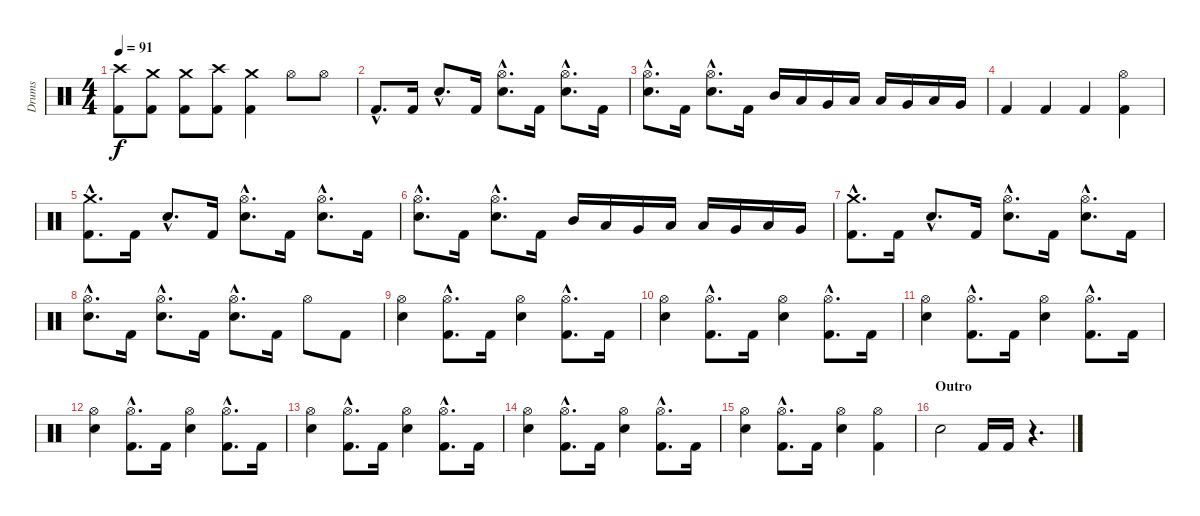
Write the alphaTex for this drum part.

\track ("Drums" "Drums") {instrument percussion}
\staff {score}
\articulation defaults
\ts (4 4)
\tempo 91
\clef neutral
\ks c
("Crash high (hit)" "Kick (hit) 2").8{dy f} ("Crash medium (hit)" "Kick (hit) 2").8 ("Crash medium (hit)" "Kick (hit) 2").8 ("Crash high (hit)" "Kick (hit) 2").8 ("Crash medium (hit)" "Kick (hit) 2").4 "Hi-Hat (open)".8 "Hi-Hat (open)".8 |
"Kick (hit) 2"{hac}.8{d} "Kick (hit) 2".16 "Snare (hit) 2"{hac}.8{d} "Kick (hit) 2".16 ("Hi-Hat (open)"{hac} "Snare (hit) 2"{hac}).8{d} "Kick (hit) 2".16 ("Hi-Hat (open)"{hac} "Snare (hit) 2"{hac}).8{d} "Kick (hit) 2".16 |
("Hi-Hat (open)"{hac} "Snare (hit) 2"{hac}).8{d} "Kick (hit) 2".16 ("Hi-Hat (open)"{hac} "Snare (hit) 2"{hac}).8{d} "Kick (hit) 2".16 "Mid Tom (hit)".16 "Low Tom (hit)".16 "Very Low Tom (hit)".16 "Low Floor Tom (hit)".16 "Low Tom (hit)".16 "Very Low Tom (hit)".16 "Low Floor Tom (hit)".16 "Very Low Tom (hit)".16 |
"Kick (hit) 2".4 "Kick (hit) 2".4 "Kick (hit) 2".4 ("Hi-Hat (open)" "Kick (hit) 2").4 |
("Crash medium (hit)"{hac} "Kick (hit) 2"{hac}).8{d} "Kick (hit) 2".16 "Snare (hit) 2"{hac}.8{d} "Kick (hit) 2".16 ("Hi-Hat (open)"{hac} "Snare (hit) 2"{hac}).8{d} "Kick (hit) 2".16 ("Hi-Hat (open)"{hac} "Snare (hit) 2"{hac}).8{d} "Kick (hit) 2".16 |
("Hi-Hat (open)"{hac} "Snare (hit) 2"{hac}).8{d} "Kick (hit) 2".16 ("Hi-Hat (open)"{hac} "Snare (hit) 2"{hac}).8{d} "Kick (hit) 2".16 "Mid Tom (hit)".16 "Low Tom (hit)".16 "Very Low Tom (hit)".16 "Low Floor Tom (hit)".16 "Low Tom (hit)".16 "Very Low Tom (hit)".16 "Low Floor Tom (hit)".16 "Very Low Tom (hit)".16 |
("Crash medium (hit)"{hac} "Kick (hit) 2"{hac}).8{d} "Kick (hit) 2".16 "Snare (hit) 2"{hac}.8{d} "Kick (hit) 2".16 ("Hi-Hat (open)"{hac} "Snare (hit) 2"{hac}).8{d} "Kick (hit) 2".16 ("Hi-Hat (open)"{hac} "Snare (hit) 2"{hac}).8{d} "Kick (hit) 2".16 |
("Hi-Hat (open)"{hac} "Snare (hit) 2"{hac}).8{d} "Kick (hit) 2".16 ("Hi-Hat (open)"{hac} "Snare (hit) 2"{hac}).8{d} "Kick (hit) 2".16 ("Hi-Hat (open)"{hac} "Snare (hit) 2"{hac}).8{d} "Kick (hit) 2".16 "Hi-Hat (open)".8 "Kick (hit) 2".8 |
("Hi-Hat (open)" "Snare (hit) 2").4 ("Hi-Hat (open)"{hac} "Kick (hit) 2"{hac}).8{d} "Kick (hit) 2".16 ("Hi-Hat (open)" "Snare (hit) 2").4 ("Hi-Hat (open)"{hac} "Kick (hit) 2"{hac}).8{d} "Kick (hit) 2".16 |
("Hi-Hat (open)" "Snare (hit) 2").4 ("Hi-Hat (open)"{hac} "Kick (hit) 2"{hac}).8{d} "Kick (hit) 2".16 ("Hi-Hat (open)" "Snare (hit) 2").4 ("Hi-Hat (open)"{hac} "Kick (hit) 2"{hac}).8{d} "Kick (hit) 2".16 |
("Hi-Hat (open)" "Snare (hit) 2").4 ("Hi-Hat (open)"{hac} "Kick (hit) 2"{hac}).8{d} "Kick (hit) 2".16 ("Hi-Hat (open)" "Snare (hit) 2").4 ("Hi-Hat (open)"{hac} "Kick (hit) 2"{hac}).8{d} "Kick (hit) 2".16 |
("Hi-Hat (open)" "Snare (hit) 2").4 ("Hi-Hat (open)"{hac} "Kick (hit) 2"{hac}).8{d} "Kick (hit) 2".16 ("Hi-Hat (open)" "Snare (hit) 2").4 ("Hi-Hat (open)"{hac} "Kick (hit) 2"{hac}).8{d} "Kick (hit) 2".16 |
("Hi-Hat (open)" "Snare (hit) 2").4 ("Hi-Hat (open)"{hac} "Kick (hit) 2"{hac}).8{d} "Kick (hit) 2".16 ("Hi-Hat (open)" "Snare (hit) 2").4 ("Hi-Hat (open)"{hac} "Kick (hit) 2"{hac}).8{d} "Kick (hit) 2".16 |
("Hi-Hat (open)" "Snare (hit) 2").4 ("Hi-Hat (open)"{hac} "Kick (hit) 2"{hac}).8{d} "Kick (hit) 2".16 ("Hi-Hat (open)" "Snare (hit) 2").4 ("Hi-Hat (open)"{hac} "Kick (hit) 2"{hac}).8{d} "Kick (hit) 2".16 |
("Hi-Hat (open)" "Snare (hit) 2").4 ("Hi-Hat (open)"{hac} "Kick (hit) 2"{hac}).8{d} "Kick (hit) 2".16 ("Hi-Hat (open)" "Snare (hit) 2").4 ("Hi-Hat (open)" "Kick (hit) 2").4 |
\section ("" "Outro")
"Snare (hit) 2".2 "Kick (hit) 2".16 "Kick (hit) 2".16 r.4{d}
